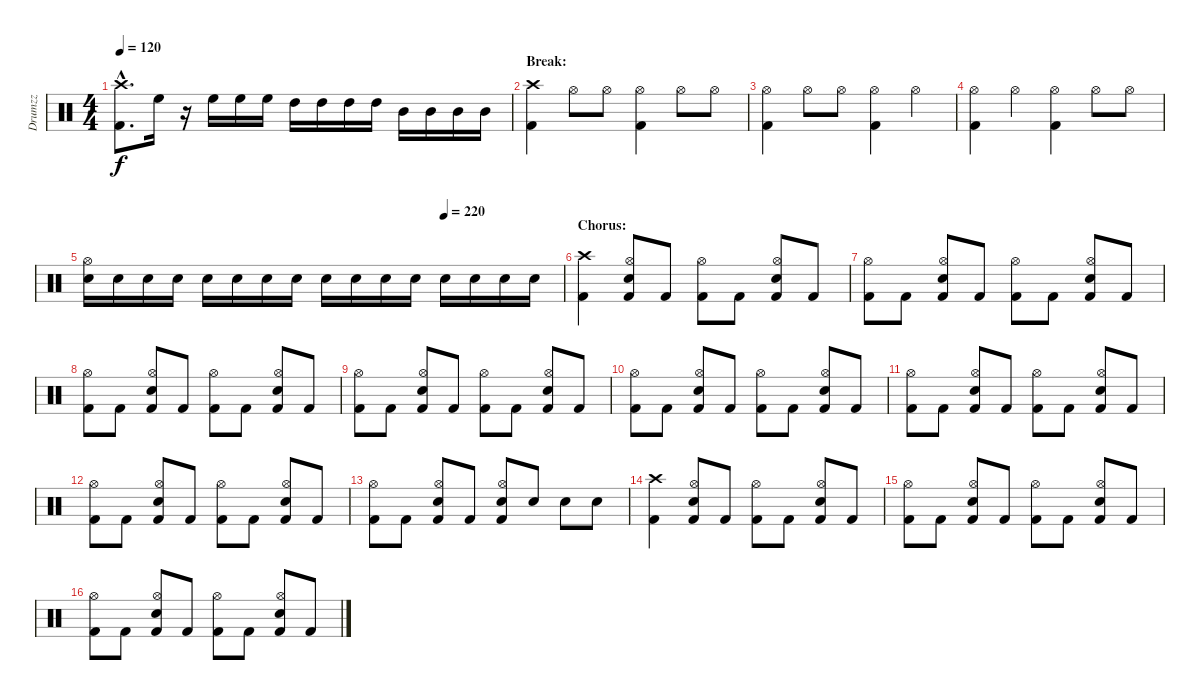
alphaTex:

\track ("Drumzz" "Drumzz") {instrument percussion}
\staff {score}
\articulation defaults
\ts (4 4)
\tempo 120
\clef neutral
\ks c
("Crash high (hit)"{hac} "Kick (hit) 2"{hac}).8{d dy f} "High Floor Tom (hit)".16 r.16 "High Floor Tom (hit)".16 "High Floor Tom (hit)".16 "High Floor Tom (hit)".16 "High Tom (hit)".16 "High Tom (hit)".16 "High Tom (hit)".16 "High Tom (hit)".16 "Mid Tom (hit)".16 "Mid Tom (hit)".16 "Mid Tom (hit)".16 "Mid Tom (hit)".16 |
\section ("" "Break:")
("Crash high (hit)" "Kick (hit) 2").4 "Hi-Hat (open)".8 "Hi-Hat (open)".8 ("Hi-Hat (open)" "Kick (hit) 2").4 "Hi-Hat (open)".8 "Hi-Hat (open)".8 |
("Hi-Hat (open)" "Kick (hit) 2").4 "Hi-Hat (open)".8 "Hi-Hat (open)".8 ("Hi-Hat (open)" "Kick (hit) 2").4 "Hi-Hat (open)".4 |
("Hi-Hat (open)" "Kick (hit) 2").4 "Hi-Hat (open)".4 ("Hi-Hat (open)" "Kick (hit) 2").4 "Hi-Hat (open)".8 "Hi-Hat (open)".8 |
\tempo (220 0.75)
("Hi-Hat (open)" "Electric Snare (hit)").16 "Electric Snare (hit)".16 "Electric Snare (hit)".16 "Electric Snare (hit)".16 "Electric Snare (hit)".16 "Electric Snare (hit)".16 "Electric Snare (hit)".16 "Electric Snare (hit)".16 "Electric Snare (hit)".16 "Electric Snare (hit)".16 "Electric Snare (hit)".16 "Electric Snare (hit)".16 "Electric Snare (hit)".16 "Electric Snare (hit)".16 "Electric Snare (hit)".16 "Electric Snare (hit)".16 |
\section ("" "Chorus:")
("Crash high (hit)" "Kick (hit) 2").4 ("Hi-Hat (open)" "Electric Snare (hit)" "Kick (hit) 2").8 "Kick (hit) 2".8 ("Hi-Hat (open)" "Kick (hit) 2").8 "Kick (hit) 2".8 ("Hi-Hat (open)" "Electric Snare (hit)" "Kick (hit) 2").8 "Kick (hit) 2".8 |
("Hi-Hat (open)" "Kick (hit) 2").8 "Kick (hit) 2".8 ("Hi-Hat (open)" "Electric Snare (hit)" "Kick (hit) 2").8 "Kick (hit) 2".8 ("Hi-Hat (open)" "Kick (hit) 2").8 "Kick (hit) 2".8 ("Hi-Hat (open)" "Electric Snare (hit)" "Kick (hit) 2").8 "Kick (hit) 2".8 |
("Hi-Hat (open)" "Kick (hit) 2").8 "Kick (hit) 2".8 ("Hi-Hat (open)" "Electric Snare (hit)" "Kick (hit) 2").8 "Kick (hit) 2".8 ("Hi-Hat (open)" "Kick (hit) 2").8 "Kick (hit) 2".8 ("Hi-Hat (open)" "Electric Snare (hit)" "Kick (hit) 2").8 "Kick (hit) 2".8 |
("Hi-Hat (open)" "Kick (hit) 2").8 "Kick (hit) 2".8 ("Hi-Hat (open)" "Electric Snare (hit)" "Kick (hit) 2").8 "Kick (hit) 2".8 ("Hi-Hat (open)" "Kick (hit) 2").8 "Kick (hit) 2".8 ("Hi-Hat (open)" "Electric Snare (hit)" "Kick (hit) 2").8 "Kick (hit) 2".8 |
("Hi-Hat (open)" "Kick (hit) 2").8 "Kick (hit) 2".8 ("Hi-Hat (open)" "Electric Snare (hit)" "Kick (hit) 2").8 "Kick (hit) 2".8 ("Hi-Hat (open)" "Kick (hit) 2").8 "Kick (hit) 2".8 ("Hi-Hat (open)" "Electric Snare (hit)" "Kick (hit) 2").8 "Kick (hit) 2".8 |
("Hi-Hat (open)" "Kick (hit) 2").8 "Kick (hit) 2".8 ("Hi-Hat (open)" "Electric Snare (hit)" "Kick (hit) 2").8 "Kick (hit) 2".8 ("Hi-Hat (open)" "Kick (hit) 2").8 "Kick (hit) 2".8 ("Hi-Hat (open)" "Electric Snare (hit)" "Kick (hit) 2").8 "Kick (hit) 2".8 |
("Hi-Hat (open)" "Kick (hit) 2").8 "Kick (hit) 2".8 ("Hi-Hat (open)" "Electric Snare (hit)" "Kick (hit) 2").8 "Kick (hit) 2".8 ("Hi-Hat (open)" "Kick (hit) 2").8 "Kick (hit) 2".8 ("Hi-Hat (open)" "Electric Snare (hit)" "Kick (hit) 2").8 "Kick (hit) 2".8 |
("Hi-Hat (open)" "Kick (hit) 2").8 "Kick (hit) 2".8 ("Hi-Hat (open)" "Electric Snare (hit)" "Kick (hit) 2").8 "Kick (hit) 2".8 ("Hi-Hat (open)" "Electric Snare (hit)" "Kick (hit) 2").8 "Electric Snare (hit)".8 "Electric Snare (hit)".8 "Electric Snare (hit)".8 |
("Crash high (hit)" "Kick (hit) 2").4 ("Hi-Hat (open)" "Electric Snare (hit)" "Kick (hit) 2").8 "Kick (hit) 2".8 ("Hi-Hat (open)" "Kick (hit) 2").8 "Kick (hit) 2".8 ("Hi-Hat (open)" "Electric Snare (hit)" "Kick (hit) 2").8 "Kick (hit) 2".8 |
("Hi-Hat (open)" "Kick (hit) 2").8 "Kick (hit) 2".8 ("Hi-Hat (open)" "Electric Snare (hit)" "Kick (hit) 2").8 "Kick (hit) 2".8 ("Hi-Hat (open)" "Kick (hit) 2").8 "Kick (hit) 2".8 ("Hi-Hat (open)" "Electric Snare (hit)" "Kick (hit) 2").8 "Kick (hit) 2".8 |
("Hi-Hat (open)" "Kick (hit) 2").8 "Kick (hit) 2".8 ("Hi-Hat (open)" "Electric Snare (hit)" "Kick (hit) 2").8 "Kick (hit) 2".8 ("Hi-Hat (open)" "Kick (hit) 2").8 "Kick (hit) 2".8 ("Hi-Hat (open)" "Electric Snare (hit)" "Kick (hit) 2").8 "Kick (hit) 2".8
